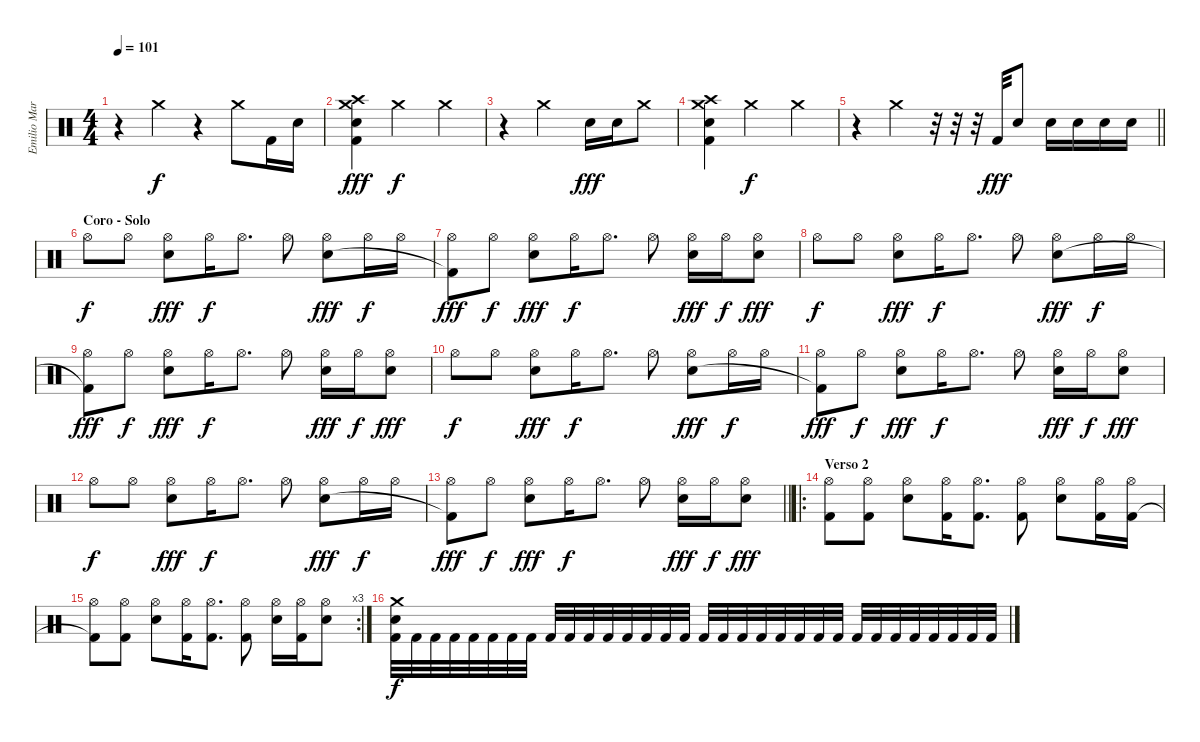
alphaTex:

\track ("Emilio Marquez" "Emilio Mar") {instrument percussion}
\staff {score}
\articulation defaults
\ts (4 4)
\tempo 101
\clef neutral
\ks c
r.4{dy f} "Crash medium (hit)".4 r.4 "Crash medium (hit)".8 "Kick (hit) 2".16 "Snare (hit) 2".16 |
("Crash high (hit)" "Crash medium (hit)" "Snare (hit) 2" "Kick (hit) 2").4{dy fff} "Crash medium (hit)".2{dy f} "Crash medium (hit)".4 |
r.4 "Crash medium (hit)".2 "Snare (hit) 2".16{dy fff} "Snare (hit) 2".16 "Crash medium (hit)".8 |
("Crash high (hit)" "Crash medium (hit)" "Snare (hit) 2" "Kick (hit) 2").4 "Crash medium (hit)".2{dy f} "Crash medium (hit)".4 |
\barLineRight lightlight
r.4 "Crash medium (hit)".4 r.32 r.32 r.32 "Kick (hit) 2".32{dy fff} "Snare (hit) 2".8 "Snare (hit) 2".16 "Snare (hit) 2".16 "Snare (hit) 2".16 "Snare (hit) 2".16 |
\section ("" "Coro - Solo")
"Hi-Hat (open)".8{dy f} "Hi-Hat (open)".8 ("Hi-Hat (open)" "Snare (hit) 2").8{dy fff} "Hi-Hat (open)".16{dy f} "Hi-Hat (open)".8{d} "Hi-Hat (open)".8 ("Hi-Hat (open)" "Snare (hit) 2").8{dy fff} "Hi-Hat (open)".16{dy f} "Hi-Hat (open)".16 |
("Hi-Hat (open)" "Kick (hit) 2"{t}).8{dy fff} "Hi-Hat (open)".8{dy f} ("Hi-Hat (open)" "Snare (hit) 2").8{dy fff} "Hi-Hat (open)".16{dy f} "Hi-Hat (open)".8{d} "Hi-Hat (open)".8 ("Hi-Hat (open)" "Snare (hit) 2").16{dy fff} "Hi-Hat (open)".16{dy f} ("Hi-Hat (open)" "Snare (hit) 2").8{dy fff} |
"Hi-Hat (open)".8{dy f} "Hi-Hat (open)".8 ("Hi-Hat (open)" "Snare (hit) 2").8{dy fff} "Hi-Hat (open)".16{dy f} "Hi-Hat (open)".8{d} "Hi-Hat (open)".8 ("Hi-Hat (open)" "Snare (hit) 2").8{dy fff} "Hi-Hat (open)".16{dy f} "Hi-Hat (open)".16 |
("Hi-Hat (open)" "Kick (hit) 2"{t}).8{dy fff} "Hi-Hat (open)".8{dy f} ("Hi-Hat (open)" "Snare (hit) 2").8{dy fff} "Hi-Hat (open)".16{dy f} "Hi-Hat (open)".8{d} "Hi-Hat (open)".8 ("Hi-Hat (open)" "Snare (hit) 2").16{dy fff} "Hi-Hat (open)".16{dy f} ("Hi-Hat (open)" "Snare (hit) 2").8{dy fff} |
"Hi-Hat (open)".8{dy f} "Hi-Hat (open)".8 ("Hi-Hat (open)" "Snare (hit) 2").8{dy fff} "Hi-Hat (open)".16{dy f} "Hi-Hat (open)".8{d} "Hi-Hat (open)".8 ("Hi-Hat (open)" "Snare (hit) 2").8{dy fff} "Hi-Hat (open)".16{dy f} "Hi-Hat (open)".16 |
("Hi-Hat (open)" "Kick (hit) 2"{t}).8{dy fff} "Hi-Hat (open)".8{dy f} ("Hi-Hat (open)" "Snare (hit) 2").8{dy fff} "Hi-Hat (open)".16{dy f} "Hi-Hat (open)".8{d} "Hi-Hat (open)".8 ("Hi-Hat (open)" "Snare (hit) 2").16{dy fff} "Hi-Hat (open)".16{dy f} ("Hi-Hat (open)" "Snare (hit) 2").8{dy fff} |
"Hi-Hat (open)".8{dy f} "Hi-Hat (open)".8 ("Hi-Hat (open)" "Snare (hit) 2").8{dy fff} "Hi-Hat (open)".16{dy f} "Hi-Hat (open)".8{d} "Hi-Hat (open)".8 ("Hi-Hat (open)" "Snare (hit) 2").8{dy fff} "Hi-Hat (open)".16{dy f} "Hi-Hat (open)".16 |
\barLineRight lightlight
("Hi-Hat (open)" "Kick (hit) 2"{t}).8{dy fff} "Hi-Hat (open)".8{dy f} ("Hi-Hat (open)" "Snare (hit) 2").8{dy fff} "Hi-Hat (open)".16{dy f} "Hi-Hat (open)".8{d} "Hi-Hat (open)".8 ("Hi-Hat (open)" "Snare (hit) 2").16{dy fff} "Hi-Hat (open)".16{dy f} ("Hi-Hat (open)" "Snare (hit) 2").8{dy fff} |
\ro
\section ("" "Verso 2")
("Hi-Hat (open)" "Kick (hit) 2").8 ("Hi-Hat (open)" "Kick (hit) 2").8 ("Hi-Hat (open)" "Snare (hit) 2").8 ("Hi-Hat (open)" "Kick (hit) 2").16 ("Hi-Hat (open)" "Kick (hit) 2").8{d} ("Hi-Hat (open)" "Kick (hit) 2").8 ("Hi-Hat (open)" "Snare (hit) 2").8 ("Hi-Hat (open)" "Kick (hit) 2").16 ("Hi-Hat (open)" "Kick (hit) 2").16 |
\rc 3
("Hi-Hat (open)" "Kick (hit) 2"{t}).8 ("Hi-Hat (open)" "Kick (hit) 2").8 ("Hi-Hat (open)" "Snare (hit) 2").8 ("Hi-Hat (open)" "Kick (hit) 2").16 ("Hi-Hat (open)" "Kick (hit) 2").8{d} ("Hi-Hat (open)" "Kick (hit) 2").8 ("Hi-Hat (open)" "Snare (hit) 2").16 ("Hi-Hat (open)" "Kick (hit) 2").16 ("Hi-Hat (open)" "Snare (hit) 2").8 |
("Snare (hit) 2" "Crash medium (hit)" "Kick (hit) 2").32{dy f} "Kick (hit) 2".32 "Kick (hit) 2".32 "Kick (hit) 2".32 "Kick (hit) 2".32 "Kick (hit) 2".32 "Kick (hit) 2".32 "Kick (hit) 2".32 "Kick (hit) 2".32 "Kick (hit) 2".32 "Kick (hit) 2".32 "Kick (hit) 2".32 "Kick (hit) 2".32 "Kick (hit) 2".32 "Kick (hit) 2".32 "Kick (hit) 2".32 "Kick (hit) 2".32 "Kick (hit) 2".32 "Kick (hit) 2".32 "Kick (hit) 2".32 "Kick (hit) 2".32 "Kick (hit) 2".32 "Kick (hit) 2".32 "Kick (hit) 2".32 "Kick (hit) 2".32 "Kick (hit) 2".32 "Kick (hit) 2".32 "Kick (hit) 2".32 "Kick (hit) 2".32 "Kick (hit) 2".32 "Kick (hit) 2".32 "Kick (hit) 2".32
